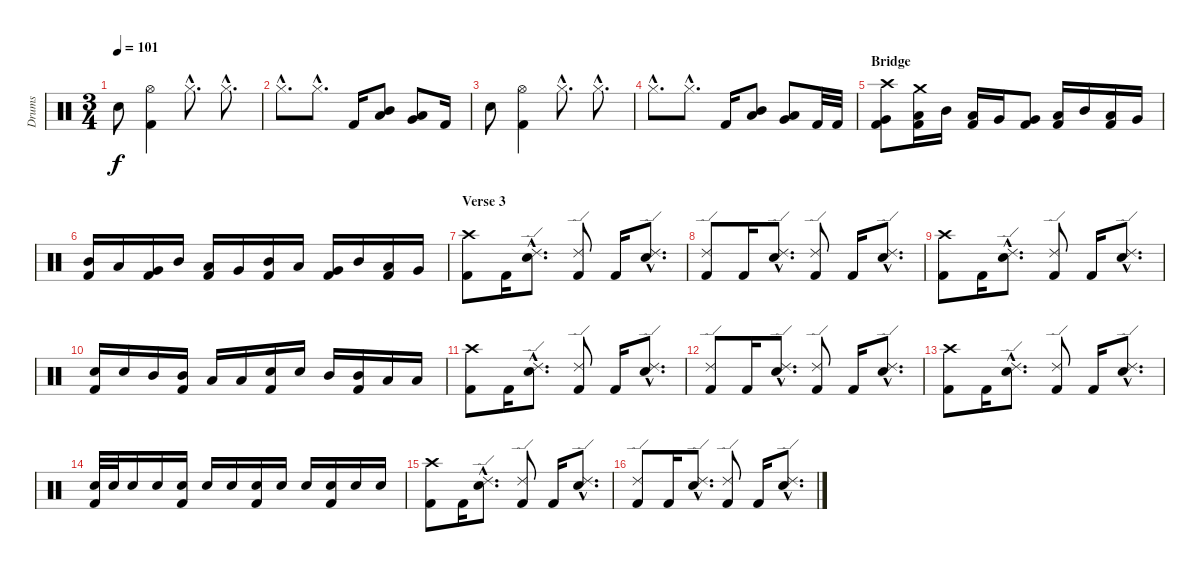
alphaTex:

\track ("Drums" "Drums") {instrument percussion}
\staff {score}
\articulation defaults
\ts (3 4)
\tempo 101
\clef neutral
\ks c "Electric Snare (hit)".8{dy f}
("Hi-Hat (open)" "Kick (hit) 2").4 "Hi-Hat (closed)"{hac}.8{d} "Hi-Hat (closed)"{hac}.8{d} |
"Hi-Hat (closed)"{hac}.8{d} "Hi-Hat (closed)"{hac}.8{d} "Kick (hit) 2".16 ("Low Tom (hit)" "Mid Tom (hit)").8 ("Low Tom (hit)" "Very Low Tom (hit)").8 "Kick (hit) 2".16 |
"Electric Snare (hit)".8 ("Hi-Hat (open)" "Kick (hit) 2").4 "Hi-Hat (closed)"{hac}.8{d} "Hi-Hat (closed)"{hac}.8{d} |
"Hi-Hat (closed)"{hac}.8{d} "Hi-Hat (closed)"{hac}.8{d} "Kick (hit) 2".16 ("Low Tom (hit)" "Mid Tom (hit)").8 ("Low Tom (hit)" "Very Low Tom (hit)").8 "Kick (hit) 2".32 "Kick (hit) 2".32 |
\section ("" "Bridge")
("Crash high (hit)" "Very Low Tom (hit)" "Kick (hit) 2").8 ("Crash medium (hit)" "Low Tom (hit)" "Kick (hit) 2").16 "Mid Tom (hit)".16 ("Low Tom (hit)" "Kick (hit) 2").16 "Very Low Tom (hit)".16 ("Very Low Tom (hit)" "Kick (hit) 2").8 ("Low Tom (hit)" "Kick (hit) 2").16 "Mid Tom (hit)".16 ("Low Tom (hit)" "Kick (hit) 2").16 "Very Low Tom (hit)".16 |
("Mid Tom (hit)" "Kick (hit) 2").16 "Low Tom (hit)".16 ("Very Low Tom (hit)" "Kick (hit) 2").16 "Mid Tom (hit)".16 ("Low Tom (hit)" "Kick (hit) 2").16 "Very Low Tom (hit)".16 ("Mid Tom (hit)" "Kick (hit) 2").16 "Low Tom (hit)".16 ("Very Low Tom (hit)" "Kick (hit) 2").16 "Mid Tom (hit)".16 ("Low Tom (hit)" "Kick (hit) 2").16 "Very Low Tom (hit)".16 |
\section ("" "Verse 3")
("Crash high (hit)" "Kick (hit) 2").8 "Kick (hit) 2".16 ("Electric Snare (hit)"{hac} "Ride (edge) 2"{hac}).8{d} ("Ride (edge) 2" "Kick (hit) 2").8 "Kick (hit) 2".16 ("Electric Snare (hit)"{hac} "Ride (edge) 2"{hac}).8{d} |
("Ride (edge) 2" "Kick (hit) 2").8 "Kick (hit) 2".16 ("Electric Snare (hit)"{hac} "Ride (edge) 2"{hac}).8{d} ("Ride (edge) 2" "Kick (hit) 2").8 "Kick (hit) 2".16 ("Electric Snare (hit)"{hac} "Ride (edge) 2"{hac}).8{d} |
("Crash high (hit)" "Kick (hit) 2").8 "Kick (hit) 2".16 ("Electric Snare (hit)"{hac} "Ride (edge) 2"{hac}).8{d} ("Ride (edge) 2" "Kick (hit) 2").8 "Kick (hit) 2".16 ("Electric Snare (hit)"{hac} "Ride (edge) 2"{hac}).8{d} |
("Electric Snare (hit)" "Kick (hit) 2").16 "Electric Snare (hit)".16 "Mid Tom (hit)".16 ("Mid Tom (hit)" "Kick (hit) 2").16 "Low Tom (hit)".16 "Low Tom (hit)".16 ("Electric Snare (hit)" "Kick (hit) 2").16 "Electric Snare (hit)".16 "Mid Tom (hit)".16 ("Mid Tom (hit)" "Kick (hit) 2").16 "Low Tom (hit)".16 "Low Tom (hit)".16 |
("Crash high (hit)" "Kick (hit) 2").8 "Kick (hit) 2".16 ("Electric Snare (hit)"{hac} "Ride (edge) 2"{hac}).8{d} ("Ride (edge) 2" "Kick (hit) 2").8 "Kick (hit) 2".16 ("Electric Snare (hit)"{hac} "Ride (edge) 2"{hac}).8{d} |
("Ride (edge) 2" "Kick (hit) 2").8 "Kick (hit) 2".16 ("Electric Snare (hit)"{hac} "Ride (edge) 2"{hac}).8{d} ("Ride (edge) 2" "Kick (hit) 2").8 "Kick (hit) 2".16 ("Electric Snare (hit)"{hac} "Ride (edge) 2"{hac}).8{d} |
("Crash high (hit)" "Kick (hit) 2").8 "Kick (hit) 2".16 ("Electric Snare (hit)"{hac} "Ride (edge) 2"{hac}).8{d} ("Ride (edge) 2" "Kick (hit) 2").8 "Kick (hit) 2".16 ("Electric Snare (hit)"{hac} "Ride (edge) 2"{hac}).8{d} |
("Electric Snare (hit)" "Kick (hit) 2").32 "Electric Snare (hit)".32 "Electric Snare (hit)".16 "Electric Snare (hit)".16 ("Electric Snare (hit)" "Kick (hit) 2").16 "Electric Snare (hit)".16 "Electric Snare (hit)".16 ("Electric Snare (hit)" "Kick (hit) 2").16 "Electric Snare (hit)".16 "Electric Snare (hit)".16 ("Electric Snare (hit)" "Kick (hit) 2").16 "Electric Snare (hit)".16 "Electric Snare (hit)".16 |
("Crash high (hit)" "Kick (hit) 2").8 "Kick (hit) 2".16 ("Electric Snare (hit)"{hac} "Ride (edge) 2"{hac}).8{d} ("Ride (edge) 2" "Kick (hit) 2").8 "Kick (hit) 2".16 ("Electric Snare (hit)"{hac} "Ride (edge) 2"{hac}).8{d} |
("Ride (edge) 2" "Kick (hit) 2").8 "Kick (hit) 2".16 ("Electric Snare (hit)"{hac} "Ride (edge) 2"{hac}).8{d} ("Ride (edge) 2" "Kick (hit) 2").8 "Kick (hit) 2".16 ("Electric Snare (hit)"{hac} "Ride (edge) 2"{hac}).8{d}
